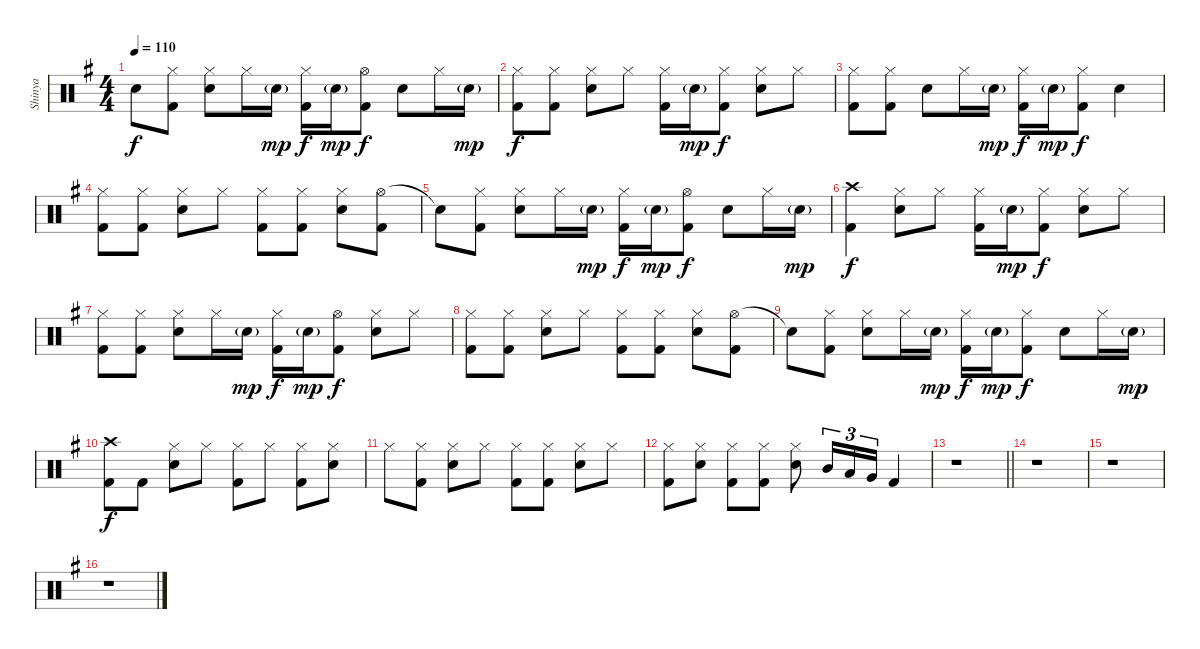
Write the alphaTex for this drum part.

\track ("Shinya" "Shinya") {instrument percussion}
\staff {score}
\articulation defaults
\ts (4 4)
\tempo 110
\clef neutral
\ks g "Snare (hit)"{t}.8{dy f}
("Hi-Hat (closed)" "Kick (hit) 2").8 ("Hi-Hat (closed)" "Electric Snare (hit)").8 "Hi-Hat (closed)".16 "Electric Snare (hit)"{g}.16{dy mp} ("Hi-Hat (closed)" "Kick (hit) 2").16{dy f} "Electric Snare (hit)"{g}.16{dy mp} ("Hi-Hat (open)" "Kick (hit) 2").8{dy f} "Electric Snare (hit)".8 "Hi-Hat (closed)".16 "Electric Snare (hit)"{g}.16{dy mp} |
("Hi-Hat (closed)" "Kick (hit) 2").8{dy f} ("Hi-Hat (closed)" "Kick (hit) 2").8 ("Hi-Hat (closed)" "Electric Snare (hit)").8 "Hi-Hat (closed)".8 ("Hi-Hat (closed)" "Kick (hit) 2").16 "Electric Snare (hit)"{g}.16{dy mp} ("Hi-Hat (closed)" "Kick (hit) 2").8{dy f} ("Hi-Hat (closed)" "Electric Snare (hit)").8 "Hi-Hat (closed)".8 |
("Hi-Hat (closed)" "Kick (hit) 2").8 ("Hi-Hat (closed)" "Kick (hit) 2").8 "Electric Snare (hit)".8 "Hi-Hat (closed)".16 "Electric Snare (hit)"{g}.16{dy mp} ("Hi-Hat (closed)" "Kick (hit) 2").16{dy f} "Electric Snare (hit)"{g}.16{dy mp} ("Hi-Hat (closed)" "Kick (hit) 2").8{dy f} "Electric Snare (hit)".4 |
("Hi-Hat (closed)" "Kick (hit) 2").8 ("Hi-Hat (closed)" "Kick (hit) 2").8 ("Hi-Hat (closed)" "Electric Snare (hit)").8 "Hi-Hat (closed)".8 ("Hi-Hat (closed)" "Kick (hit) 2").8 ("Hi-Hat (closed)" "Kick (hit) 2").8 ("Hi-Hat (closed)" "Electric Snare (hit)").8 ("Hi-Hat (open)" "Kick (hit) 2").8 |
"Snare (hit)"{t}.8 ("Hi-Hat (closed)" "Kick (hit) 2").8 ("Hi-Hat (closed)" "Electric Snare (hit)").8 "Hi-Hat (closed)".16 "Electric Snare (hit)"{g}.16{dy mp} ("Hi-Hat (closed)" "Kick (hit) 2").16{dy f} "Electric Snare (hit)"{g}.16{dy mp} ("Hi-Hat (open)" "Kick (hit) 2").8{dy f} "Electric Snare (hit)".8 "Hi-Hat (closed)".16 "Electric Snare (hit)"{g}.16{dy mp} |
("Crash high (hit)" "Kick (hit) 2").4{dy f} ("Hi-Hat (closed)" "Electric Snare (hit)").8 "Hi-Hat (closed)".8 ("Hi-Hat (closed)" "Kick (hit) 2").16 "Electric Snare (hit)"{g}.16{dy mp} ("Hi-Hat (closed)" "Kick (hit) 2").8{dy f} ("Hi-Hat (closed)" "Electric Snare (hit)").8 "Hi-Hat (closed)".8 |
("Hi-Hat (closed)" "Kick (hit) 2").8 ("Hi-Hat (closed)" "Kick (hit) 2").8 ("Hi-Hat (closed)" "Electric Snare (hit)").8 "Hi-Hat (closed)".16 "Electric Snare (hit)"{g}.16{dy mp} ("Hi-Hat (closed)" "Kick (hit) 2").16{dy f} "Electric Snare (hit)"{g}.16{dy mp} ("Hi-Hat (open)" "Kick (hit) 2").8{dy f} ("Hi-Hat (closed)" "Electric Snare (hit)").8 "Hi-Hat (closed)".8 |
("Hi-Hat (closed)" "Kick (hit) 2").8 ("Hi-Hat (closed)" "Kick (hit) 2").8 ("Hi-Hat (closed)" "Electric Snare (hit)").8 "Hi-Hat (closed)".8 ("Hi-Hat (closed)" "Kick (hit) 2").8 ("Hi-Hat (closed)" "Kick (hit) 2").8 ("Hi-Hat (closed)" "Electric Snare (hit)").8 ("Hi-Hat (open)" "Kick (hit) 2").8 |
"Snare (hit)"{t}.8 ("Hi-Hat (closed)" "Kick (hit) 2").8 ("Hi-Hat (closed)" "Electric Snare (hit)").8 "Hi-Hat (closed)".16 "Electric Snare (hit)"{g}.16{dy mp} ("Hi-Hat (closed)" "Kick (hit) 2").16{dy f} "Electric Snare (hit)"{g}.16{dy mp} ("Hi-Hat (closed)" "Kick (hit) 2").8{dy f} "Electric Snare (hit)".8 "Hi-Hat (closed)".16 "Electric Snare (hit)"{g}.16{dy mp} |
("Crash high (hit)" "Kick (hit) 2").8{dy f} "Kick (hit) 2".8 ("Hi-Hat (closed)" "Electric Snare (hit)").8 "Hi-Hat (closed)".8 ("Hi-Hat (closed)" "Kick (hit) 2").8 "Hi-Hat (closed)".8 ("Hi-Hat (closed)" "Kick (hit) 2").8 ("Hi-Hat (closed)" "Electric Snare (hit)").8 |
"Hi-Hat (closed)".8 ("Hi-Hat (closed)" "Kick (hit) 2").8 ("Hi-Hat (closed)" "Electric Snare (hit)").8 "Hi-Hat (closed)".8 ("Hi-Hat (closed)" "Kick (hit) 2").8 ("Hi-Hat (closed)" "Kick (hit) 2").8 ("Hi-Hat (closed)" "Electric Snare (hit)").8 "Hi-Hat (closed)".8 |
("Hi-Hat (closed)" "Kick (hit) 2").8 ("Hi-Hat (closed)" "Electric Snare (hit)").8 ("Hi-Hat (closed)" "Kick (hit) 2").8 ("Hi-Hat (closed)" "Kick (hit) 2").8 ("Hi-Hat (closed)" "Electric Snare (hit)").8 "Mid Tom (hit)".16{tu (3 2)} "Low Tom (hit)".16{tu (3 2)} "Very Low Tom (hit)".16{tu (3 2)} "Kick (hit) 2".4 |
\barLineRight lightlight
r.1 |
r.1 |
r.1 |
r.1
